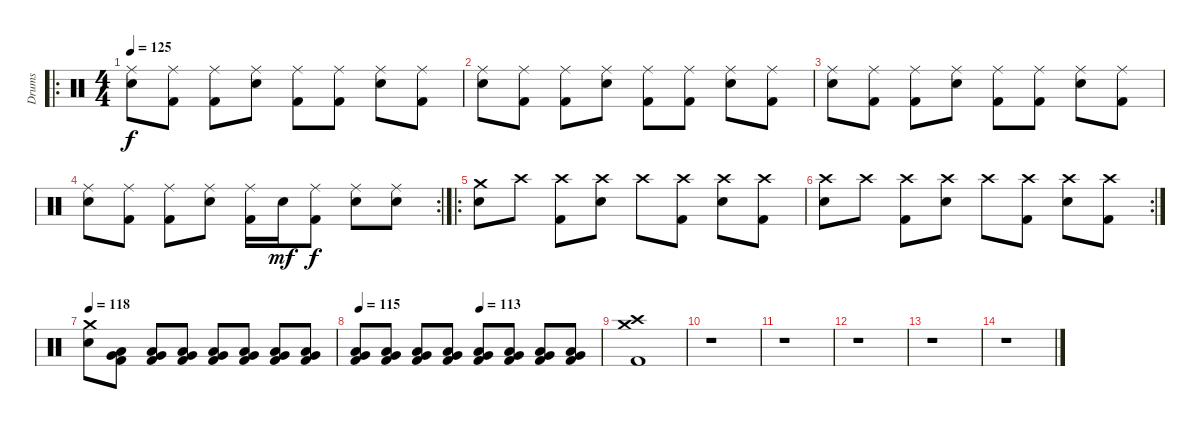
\track ("Drums" "Drums") {instrument percussion}
\staff {score}
\articulation defaults
\ro
\ts (4 4)
\tempo 125
\clef neutral
\ks c
("Ride (middle)" "Snare (hit) 2").8{dy f} ("Ride (middle)" "Kick (hit) 2").8 ("Ride (middle)" "Kick (hit) 2").8 ("Ride (middle)" "Snare (hit) 2").8 ("Ride (middle)" "Kick (hit) 2").8 ("Ride (middle)" "Kick (hit) 2").8 ("Ride (middle)" "Snare (hit) 2").8 ("Ride (middle)" "Kick (hit) 2").8 |
("Ride (middle)" "Snare (hit) 2").8 ("Ride (middle)" "Kick (hit) 2").8 ("Ride (middle)" "Kick (hit) 2").8 ("Ride (middle)" "Snare (hit) 2").8 ("Ride (middle)" "Kick (hit) 2").8 ("Ride (middle)" "Kick (hit) 2").8 ("Ride (middle)" "Snare (hit) 2").8 ("Ride (middle)" "Kick (hit) 2").8 |
("Ride (middle)" "Snare (hit) 2").8 ("Ride (middle)" "Kick (hit) 2").8 ("Ride (middle)" "Kick (hit) 2").8 ("Ride (middle)" "Snare (hit) 2").8 ("Ride (middle)" "Kick (hit) 2").8 ("Ride (middle)" "Kick (hit) 2").8 ("Ride (middle)" "Snare (hit) 2").8 ("Ride (middle)" "Kick (hit) 2").8 |
\rc 2
("Ride (middle)" "Snare (hit) 2").8 ("Ride (middle)" "Kick (hit) 2").8 ("Ride (middle)" "Kick (hit) 2").8 ("Ride (middle)" "Snare (hit) 2").8 ("Ride (middle)" "Kick (hit) 2").16 "Snare (hit) 2".16{dy mf} ("Ride (middle)" "Kick (hit) 2").8{dy f} ("Ride (middle)" "Snare (hit) 2").8 ("Ride (middle)" "Snare (hit) 2").8 |
\ro
("Crash medium (hit)" "Snare (hit) 2").8 "Crash high (hit)".8 ("Crash high (hit)" "Kick (hit) 2").8 ("Crash high (hit)" "Snare (hit) 2").8 "Crash high (hit)".8 ("Crash high (hit)" "Kick (hit) 2").8 ("Crash high (hit)" "Snare (hit) 2").8 ("Crash high (hit)" "Kick (hit) 2").8 |
\rc 2
("Crash high (hit)" "Snare (hit) 2").8 "Crash high (hit)".8 ("Crash high (hit)" "Kick (hit) 2").8 ("Crash high (hit)" "Snare (hit) 2").8 "Crash high (hit)".8 ("Crash high (hit)" "Kick (hit) 2").8 ("Crash high (hit)" "Snare (hit) 2").8 ("Crash high (hit)" "Kick (hit) 2").8 |
\tempo 118
("Crash medium (hit)" "Snare (hit) 2").8 ("Low Tom (hit)" "Very Low Tom (hit)" "Kick (hit) 2").8 ("Low Tom (hit)" "Very Low Tom (hit)" "Kick (hit) 2").8 ("Low Tom (hit)" "Very Low Tom (hit)" "Kick (hit) 2").8 ("Low Tom (hit)" "Very Low Tom (hit)" "Kick (hit) 2").8 ("Low Tom (hit)" "Very Low Tom (hit)" "Kick (hit) 2").8 ("Low Tom (hit)" "Very Low Tom (hit)" "Kick (hit) 2").8 ("Low Tom (hit)" "Very Low Tom (hit)" "Kick (hit) 2").8 |
\tempo 115
\tempo (113 0.5)
("Low Tom (hit)" "Very Low Tom (hit)" "Kick (hit) 2").8 ("Low Tom (hit)" "Very Low Tom (hit)" "Kick (hit) 2").8 ("Low Tom (hit)" "Very Low Tom (hit)" "Kick (hit) 2").8 ("Low Tom (hit)" "Very Low Tom (hit)" "Kick (hit) 2").8 ("Low Tom (hit)" "Very Low Tom (hit)" "Kick (hit) 2").8 ("Low Tom (hit)" "Very Low Tom (hit)" "Kick (hit) 2").8 ("Low Tom (hit)" "Very Low Tom (hit)" "Kick (hit) 2").8 ("Low Tom (hit)" "Very Low Tom (hit)" "Kick (hit) 2").8 |
("Crash high (hit)" "Crash medium (hit)" "Kick (hit) 2").1 |
r.1 |
r.1 |
r.1 |
r.1 |
r.1
